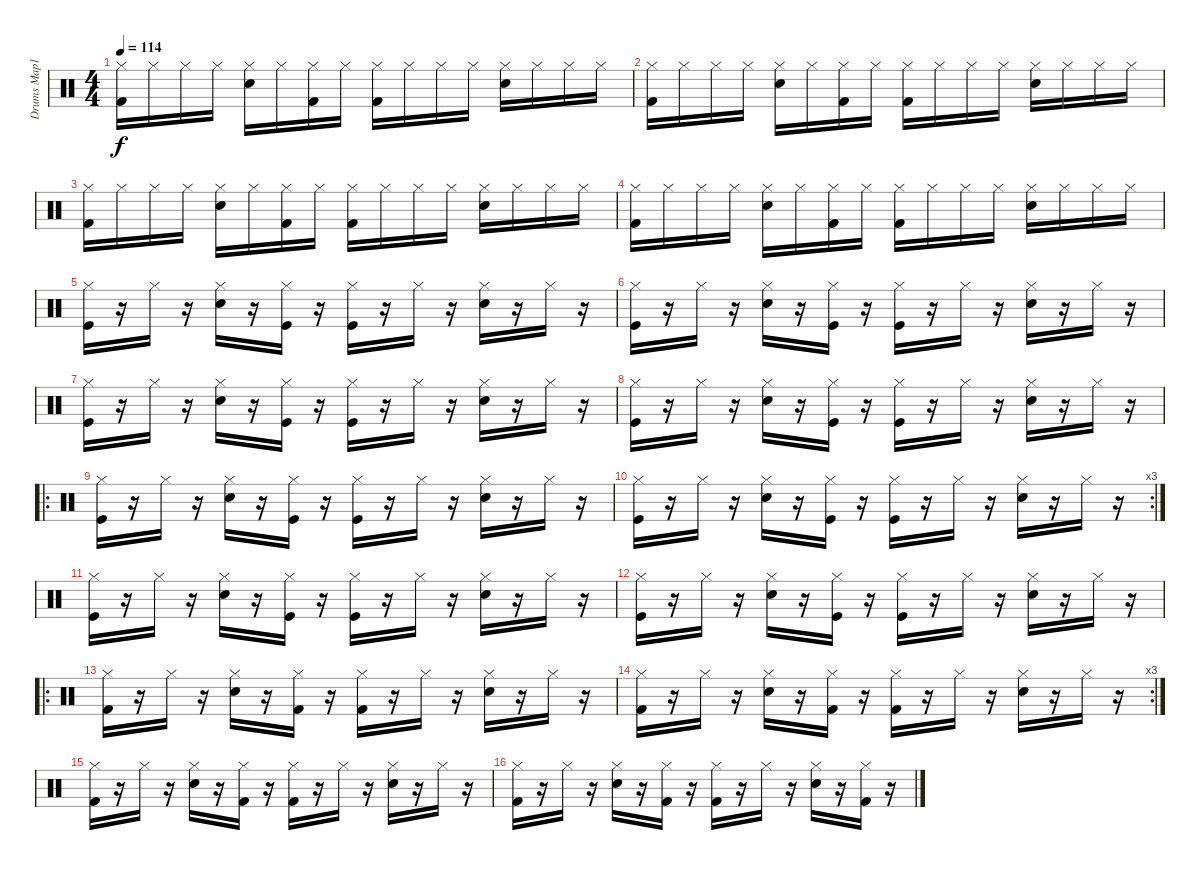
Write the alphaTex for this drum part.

\track ("Drums Map1" "Drums Map1") {instrument percussion}
\staff {score}
\articulation defaults
\ts (4 4)
\tempo 114
\clef neutral
\ks c
("Kick (hit) 2" "Hi-Hat (closed)").16{dy f} "Hi-Hat (closed)".16 "Hi-Hat (closed)".16 "Hi-Hat (closed)".16 ("Snare (hit) 2" "Hi-Hat (closed)").16 "Hi-Hat (closed)".16 ("Kick (hit) 2" "Hi-Hat (closed)").16 "Hi-Hat (closed)".16 ("Kick (hit) 2" "Hi-Hat (closed)").16 "Hi-Hat (closed)".16 "Hi-Hat (closed)".16 "Hi-Hat (closed)".16 ("Snare (hit) 2" "Hi-Hat (closed)").16 "Hi-Hat (closed)".16 "Hi-Hat (closed)".16 "Hi-Hat (closed)".16 |
("Kick (hit) 2" "Hi-Hat (closed)").16 "Hi-Hat (closed)".16 "Hi-Hat (closed)".16 "Hi-Hat (closed)".16 ("Snare (hit) 2" "Hi-Hat (closed)").16 "Hi-Hat (closed)".16 ("Kick (hit) 2" "Hi-Hat (closed)").16 "Hi-Hat (closed)".16 ("Kick (hit) 2" "Hi-Hat (closed)").16 "Hi-Hat (closed)".16 "Hi-Hat (closed)".16 "Hi-Hat (closed)".16 ("Snare (hit) 2" "Hi-Hat (closed)").16 "Hi-Hat (closed)".16 "Hi-Hat (closed)".16 "Hi-Hat (closed)".16 |
("Kick (hit) 2" "Hi-Hat (closed)").16 "Hi-Hat (closed)".16 "Hi-Hat (closed)".16 "Hi-Hat (closed)".16 ("Snare (hit) 2" "Hi-Hat (closed)").16 "Hi-Hat (closed)".16 ("Kick (hit) 2" "Hi-Hat (closed)").16 "Hi-Hat (closed)".16 ("Kick (hit) 2" "Hi-Hat (closed)").16 "Hi-Hat (closed)".16 "Hi-Hat (closed)".16 "Hi-Hat (closed)".16 ("Snare (hit) 2" "Hi-Hat (closed)").16 "Hi-Hat (closed)".16 "Hi-Hat (closed)".16 "Hi-Hat (closed)".16 |
("Kick (hit) 2" "Hi-Hat (closed)").16 "Hi-Hat (closed)".16 "Hi-Hat (closed)".16 "Hi-Hat (closed)".16 ("Snare (hit) 2" "Hi-Hat (closed)").16 "Hi-Hat (closed)".16 ("Kick (hit) 2" "Hi-Hat (closed)").16 "Hi-Hat (closed)".16 ("Kick (hit) 2" "Hi-Hat (closed)").16 "Hi-Hat (closed)".16 "Hi-Hat (closed)".16 "Hi-Hat (closed)".16 ("Snare (hit) 2" "Hi-Hat (closed)").16 "Hi-Hat (closed)".16 "Hi-Hat (closed)".16 "Hi-Hat (closed)".16 |
("Kick (hit)" "Hi-Hat (closed)").16 r.16 "Hi-Hat (closed)".16 r.16 ("Snare (hit) 2" "Hi-Hat (closed)").16 r.16 ("Kick (hit)" "Hi-Hat (closed)").16 r.16 ("Kick (hit)" "Hi-Hat (closed)").16 r.16 "Hi-Hat (closed)".16 r.16 ("Snare (hit) 2" "Hi-Hat (closed)").16 r.16 "Hi-Hat (closed)".16 r.16 |
("Kick (hit)" "Hi-Hat (closed)").16 r.16 "Hi-Hat (closed)".16 r.16 ("Snare (hit) 2" "Hi-Hat (closed)").16 r.16 ("Kick (hit)" "Hi-Hat (closed)").16 r.16 ("Kick (hit)" "Hi-Hat (closed)").16 r.16 "Hi-Hat (closed)".16 r.16 ("Snare (hit) 2" "Hi-Hat (closed)").16 r.16 "Hi-Hat (closed)".16 r.16 |
("Kick (hit)" "Hi-Hat (closed)").16 r.16 "Hi-Hat (closed)".16 r.16 ("Snare (hit) 2" "Hi-Hat (closed)").16 r.16 ("Kick (hit)" "Hi-Hat (closed)").16 r.16 ("Kick (hit)" "Hi-Hat (closed)").16 r.16 "Hi-Hat (closed)".16 r.16 ("Snare (hit) 2" "Hi-Hat (closed)").16 r.16 "Hi-Hat (closed)".16 r.16 |
("Kick (hit)" "Hi-Hat (closed)").16 r.16 "Hi-Hat (closed)".16 r.16 ("Snare (hit) 2" "Hi-Hat (closed)").16 r.16 ("Kick (hit)" "Hi-Hat (closed)").16 r.16 ("Kick (hit)" "Hi-Hat (closed)").16 r.16 "Hi-Hat (closed)".16 r.16 ("Snare (hit) 2" "Hi-Hat (closed)").16 r.16 "Hi-Hat (closed)".16 r.16 |
\ro
("Kick (hit)" "Hi-Hat (closed)").16 r.16 "Hi-Hat (closed)".16 r.16 ("Snare (hit) 2" "Hi-Hat (closed)").16 r.16 ("Kick (hit)" "Hi-Hat (closed)").16 r.16 ("Kick (hit)" "Hi-Hat (closed)").16 r.16 "Hi-Hat (closed)".16 r.16 ("Snare (hit) 2" "Hi-Hat (closed)").16 r.16 "Hi-Hat (closed)".16 r.16 |
\rc 3
("Kick (hit)" "Hi-Hat (closed)").16 r.16 "Hi-Hat (closed)".16 r.16 ("Snare (hit) 2" "Hi-Hat (closed)").16 r.16 ("Kick (hit)" "Hi-Hat (closed)").16 r.16 ("Kick (hit)" "Hi-Hat (closed)").16 r.16 "Hi-Hat (closed)".16 r.16 ("Snare (hit) 2" "Hi-Hat (closed)").16 r.16 "Hi-Hat (closed)".16 r.16 |
("Kick (hit)" "Hi-Hat (closed)").16 r.16 "Hi-Hat (closed)".16 r.16 ("Snare (hit) 2" "Hi-Hat (closed)").16 r.16 ("Kick (hit)" "Hi-Hat (closed)").16 r.16 ("Kick (hit)" "Hi-Hat (closed)").16 r.16 "Hi-Hat (closed)".16 r.16 ("Snare (hit) 2" "Hi-Hat (closed)").16 r.16 "Hi-Hat (closed)".16 r.16 |
("Kick (hit)" "Hi-Hat (closed)").16 r.16 "Hi-Hat (closed)".16 r.16 ("Snare (hit) 2" "Hi-Hat (closed)").16 r.16 ("Kick (hit)" "Hi-Hat (closed)").16 r.16 ("Kick (hit)" "Hi-Hat (closed)").16 r.16 "Hi-Hat (closed)".16 r.16 ("Snare (hit) 2" "Hi-Hat (closed)").16 r.16 "Hi-Hat (closed)".16 r.16 |
\ro
("Kick (hit) 2" "Hi-Hat (closed)").16 r.16 "Hi-Hat (closed)".16 r.16 ("Snare (hit) 2" "Hi-Hat (closed)").16 r.16 ("Kick (hit) 2" "Hi-Hat (closed)").16 r.16 ("Kick (hit) 2" "Hi-Hat (closed)").16 r.16 "Hi-Hat (closed)".16 r.16 ("Snare (hit) 2" "Hi-Hat (closed)").16 r.16 "Hi-Hat (closed)".16 r.16 |
\rc 3
("Kick (hit) 2" "Hi-Hat (closed)").16 r.16 "Hi-Hat (closed)".16 r.16 ("Snare (hit) 2" "Hi-Hat (closed)").16 r.16 ("Kick (hit) 2" "Hi-Hat (closed)").16 r.16 ("Kick (hit) 2" "Hi-Hat (closed)").16 r.16 "Hi-Hat (closed)".16 r.16 ("Snare (hit) 2" "Hi-Hat (closed)").16 r.16 "Hi-Hat (closed)".16 r.16 |
("Kick (hit) 2" "Hi-Hat (closed)").16 r.16 "Hi-Hat (closed)".16 r.16 ("Snare (hit) 2" "Hi-Hat (closed)").16 r.16 ("Kick (hit) 2" "Hi-Hat (closed)").16 r.16 ("Kick (hit) 2" "Hi-Hat (closed)").16 r.16 "Hi-Hat (closed)".16 r.16 ("Snare (hit) 2" "Hi-Hat (closed)").16 r.16 "Hi-Hat (closed)".16 r.16 |
("Kick (hit) 2" "Hi-Hat (closed)").16 r.16 "Hi-Hat (closed)".16 r.16 ("Snare (hit) 2" "Hi-Hat (closed)").16 r.16 ("Kick (hit) 2" "Hi-Hat (closed)").16 r.16 ("Kick (hit) 2" "Hi-Hat (closed)").16 r.16 "Hi-Hat (closed)".16 r.16 ("Snare (hit) 2" "Hi-Hat (closed)").16 r.16 ("Kick (hit) 2" "Hi-Hat (closed)").16 r.16
